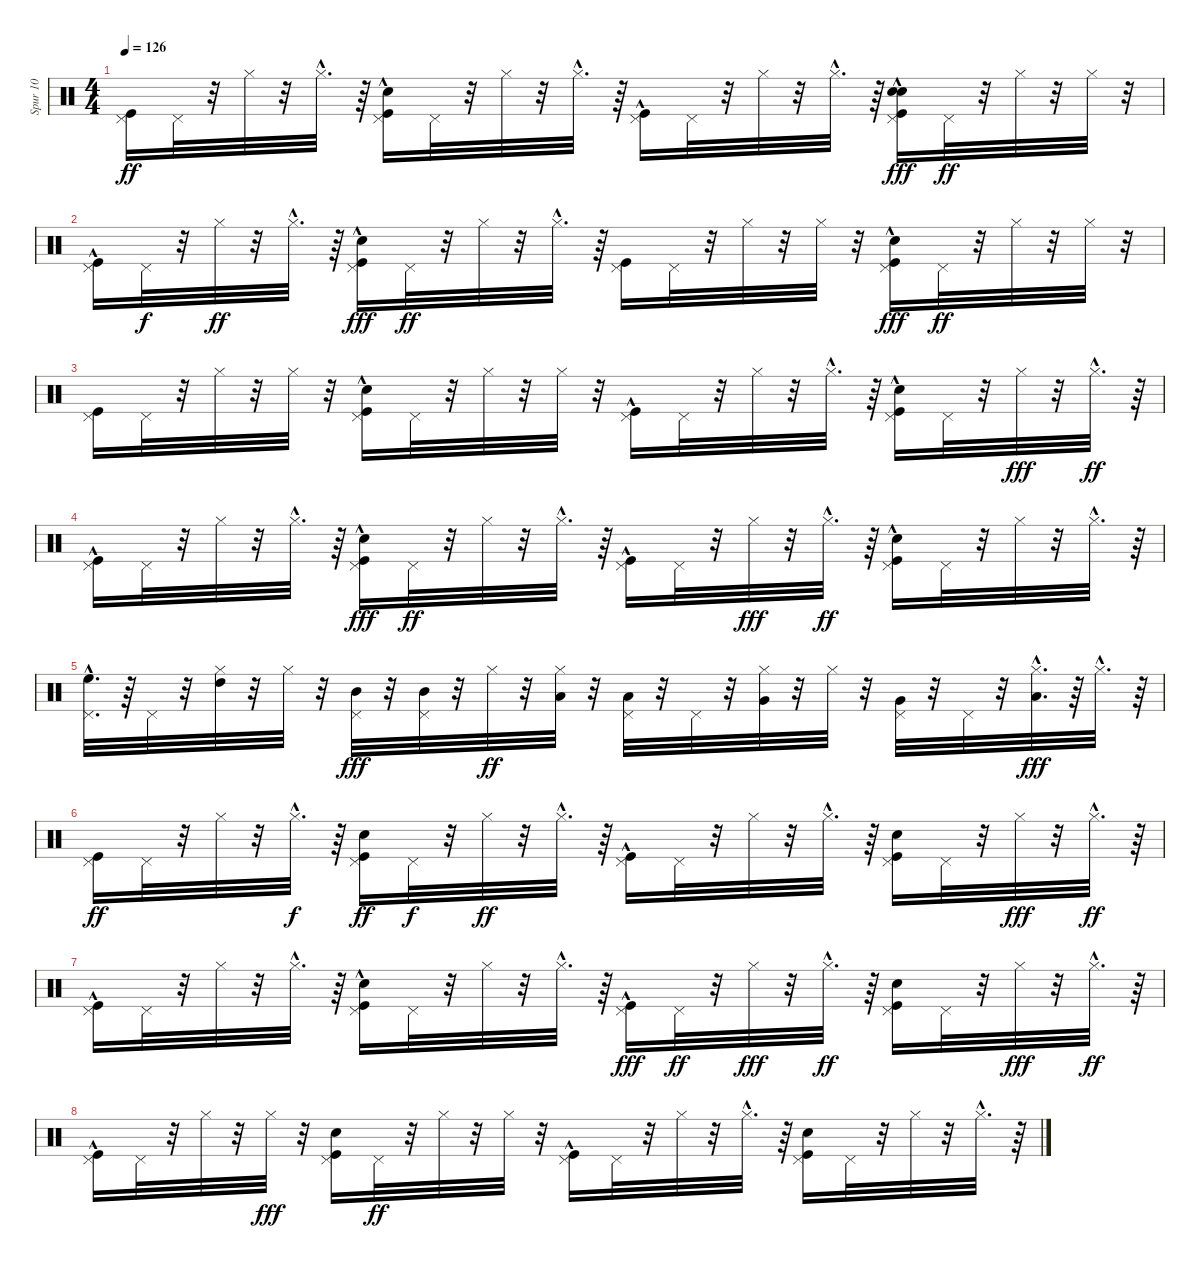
\track ("Spur 10" "Spur 10") {instrument percussion}
\staff {score}
\articulation defaults
\ts (4 4)
\tempo 126
\clef neutral
\ks c
("Kick (hit)" "Pedal Hi-Hat (hit)").16{dy ff} "Pedal Hi-Hat (hit)".32 r.32 "Hi-Hat (closed)".32 r.32 "Hi-Hat (closed)"{hac}.32{d} r.64 ("Kick (hit)"{hac} "Snare (hit) 2"{hac} "Pedal Hi-Hat (hit)").16 "Pedal Hi-Hat (hit)".32 r.32 "Hi-Hat (closed)".32 r.32 "Hi-Hat (closed)"{hac}.32{d} r.64 ("Kick (hit)"{hac} "Pedal Hi-Hat (hit)").16 "Pedal Hi-Hat (hit)".32 r.32 "Hi-Hat (closed)".32 r.32 "Hi-Hat (closed)"{hac}.32{d} r.64 ("Snare (hit) 2"{hac} "Kick (hit)"{hac} "Pedal Hi-Hat (hit)" "Snare (hit)").16{dy fff} "Pedal Hi-Hat (hit)".32{dy ff} r.32 "Hi-Hat (closed)".32 r.32 "Hi-Hat (closed)".32 r.32 |
("Kick (hit)"{hac} "Pedal Hi-Hat (hit)").16 "Pedal Hi-Hat (hit)".32{dy f} r.32 "Hi-Hat (closed)".32{dy ff} r.32 "Hi-Hat (closed)"{hac}.32{d} r.64 ("Snare (hit) 2"{hac} "Kick (hit)"{hac} "Pedal Hi-Hat (hit)").16{dy fff} "Pedal Hi-Hat (hit)".32{dy ff} r.32 "Hi-Hat (closed)".32 r.32 "Hi-Hat (closed)"{hac}.32{d} r.64 ("Kick (hit)" "Pedal Hi-Hat (hit)").16 "Pedal Hi-Hat (hit)".32 r.32 "Hi-Hat (closed)".32 r.32 "Hi-Hat (closed)".32 r.32 ("Snare (hit) 2"{hac} "Kick (hit)"{hac} "Pedal Hi-Hat (hit)").16{dy fff} "Pedal Hi-Hat (hit)".32{dy ff} r.32 "Hi-Hat (closed)".32 r.32 "Hi-Hat (closed)".32 r.32 |
("Kick (hit)" "Pedal Hi-Hat (hit)").16 "Pedal Hi-Hat (hit)".32 r.32 "Hi-Hat (closed)".32 r.32 "Hi-Hat (closed)".32 r.32 ("Kick (hit)"{hac} "Snare (hit) 2"{hac} "Pedal Hi-Hat (hit)").16 "Pedal Hi-Hat (hit)".32 r.32 "Hi-Hat (closed)".32 r.32 "Hi-Hat (closed)".32 r.32 ("Kick (hit)"{hac} "Pedal Hi-Hat (hit)").16 "Pedal Hi-Hat (hit)".32 r.32 "Hi-Hat (closed)".32 r.32 "Hi-Hat (closed)"{hac}.32{d} r.64 ("Snare (hit) 2"{hac} "Kick (hit)"{hac} "Pedal Hi-Hat (hit)").16 "Pedal Hi-Hat (hit)".32 r.32 "Hi-Hat (closed)".32{dy fff} r.32 "Hi-Hat (closed)"{hac}.32{d dy ff} r.64 |
("Kick (hit)"{hac} "Pedal Hi-Hat (hit)").16 "Pedal Hi-Hat (hit)".32 r.32 "Hi-Hat (closed)".32 r.32 "Hi-Hat (closed)"{hac}.32{d} r.64 ("Snare (hit) 2"{hac} "Kick (hit)"{hac} "Pedal Hi-Hat (hit)").16{dy fff} "Pedal Hi-Hat (hit)".32{dy ff} r.32 "Hi-Hat (closed)".32 r.32 "Hi-Hat (closed)"{hac}.32{d} r.64 ("Kick (hit)"{hac} "Pedal Hi-Hat (hit)").16 "Pedal Hi-Hat (hit)".32 r.32 "Hi-Hat (closed)".32{dy fff} r.32 "Hi-Hat (closed)"{hac}.32{d dy ff} r.64 ("Kick (hit)"{hac} "Snare (hit) 2" "Pedal Hi-Hat (hit)").16 "Pedal Hi-Hat (hit)".32 r.32 "Hi-Hat (closed)".32 r.32 "Hi-Hat (closed)"{hac}.32{d} r.64 |
("High Floor Tom (hit)"{hac} "Pedal Hi-Hat (hit)").32{d} r.64 "Pedal Hi-Hat (hit)".32 r.32 ("High Tom (hit)" "Hi-Hat (closed)").32 r.32 "Hi-Hat (closed)".32 r.32 ("Mid Tom (hit)" "Pedal Hi-Hat (hit)").32{dy fff} r.32 ("Mid Tom (hit)" "Pedal Hi-Hat (hit)").32 r.32 "Hi-Hat (closed)".32{dy ff} r.32 ("Low Tom (hit)" "Hi-Hat (closed)").32 r.32 ("Low Tom (hit)" "Pedal Hi-Hat (hit)").32 r.32 "Pedal Hi-Hat (hit)".32 r.32 ("Very Low Tom (hit)" "Hi-Hat (closed)").32 r.32 "Hi-Hat (closed)".32 r.32 ("Very Low Tom (hit)" "Pedal Hi-Hat (hit)").32 r.32 "Pedal Hi-Hat (hit)".32 r.32 ("Low Floor Tom (hit)"{hac} "Hi-Hat (closed)").32{d dy fff} r.64 "Hi-Hat (closed)"{hac}.32{d} r.64 |
("Kick (hit)" "Pedal Hi-Hat (hit)").16{dy ff} "Pedal Hi-Hat (hit)".32 r.32 "Hi-Hat (closed)".32 r.32 "Hi-Hat (closed)"{hac}.32{d dy f} r.64 ("Snare (hit) 2" "Kick (hit)" "Pedal Hi-Hat (hit)").16{dy ff} "Pedal Hi-Hat (hit)".32{dy f} r.32 "Hi-Hat (closed)".32{dy ff} r.32 "Hi-Hat (closed)"{hac}.32{d} r.64 ("Kick (hit)"{hac} "Pedal Hi-Hat (hit)").16 "Pedal Hi-Hat (hit)".32 r.32 "Hi-Hat (closed)".32 r.32 "Hi-Hat (closed)"{hac}.32{d} r.64 ("Kick (hit)" "Snare (hit) 2" "Pedal Hi-Hat (hit)").16 "Pedal Hi-Hat (hit)".32 r.32 "Hi-Hat (closed)".32{dy fff} r.32 "Hi-Hat (closed)"{hac}.32{d dy ff} r.64 |
("Kick (hit)"{hac} "Pedal Hi-Hat (hit)").16 "Pedal Hi-Hat (hit)".32 r.32 "Hi-Hat (closed)".32 r.32 "Hi-Hat (closed)"{hac}.32{d} r.64 ("Kick (hit)"{hac} "Snare (hit) 2" "Pedal Hi-Hat (hit)").16 "Pedal Hi-Hat (hit)".32 r.32 "Hi-Hat (closed)".32 r.32 "Hi-Hat (closed)"{hac}.32{d} r.64 ("Kick (hit)"{hac} "Pedal Hi-Hat (hit)").16{dy fff} "Pedal Hi-Hat (hit)".32{dy ff} r.32 "Hi-Hat (closed)".32{dy fff} r.32 "Hi-Hat (closed)"{hac}.32{d dy ff} r.64 ("Kick (hit)" "Snare (hit) 2" "Pedal Hi-Hat (hit)").16 "Pedal Hi-Hat (hit)".32 r.32 "Hi-Hat (closed)".32{dy fff} r.32 "Hi-Hat (closed)"{hac}.32{d dy ff} r.64 |
("Kick (hit)"{hac} "Pedal Hi-Hat (hit)").16 "Pedal Hi-Hat (hit)".32 r.32 "Hi-Hat (closed)".32 r.32 "Hi-Hat (closed)".32{dy fff} r.32 ("Kick (hit)" "Snare (hit) 2" "Pedal Hi-Hat (hit)").16 "Pedal Hi-Hat (hit)".32{dy ff} r.32 "Hi-Hat (closed)".32 r.32 "Hi-Hat (closed)".32 r.32 ("Kick (hit)"{hac} "Pedal Hi-Hat (hit)").16 "Pedal Hi-Hat (hit)".32 r.32 "Hi-Hat (closed)".32 r.32 "Hi-Hat (closed)"{hac}.32{d} r.64 ("Kick (hit)" "Snare (hit) 2" "Pedal Hi-Hat (hit)").16 "Pedal Hi-Hat (hit)".32 r.32 "Hi-Hat (closed)".32 r.32 "Hi-Hat (closed)"{hac}.32{d} r.64
